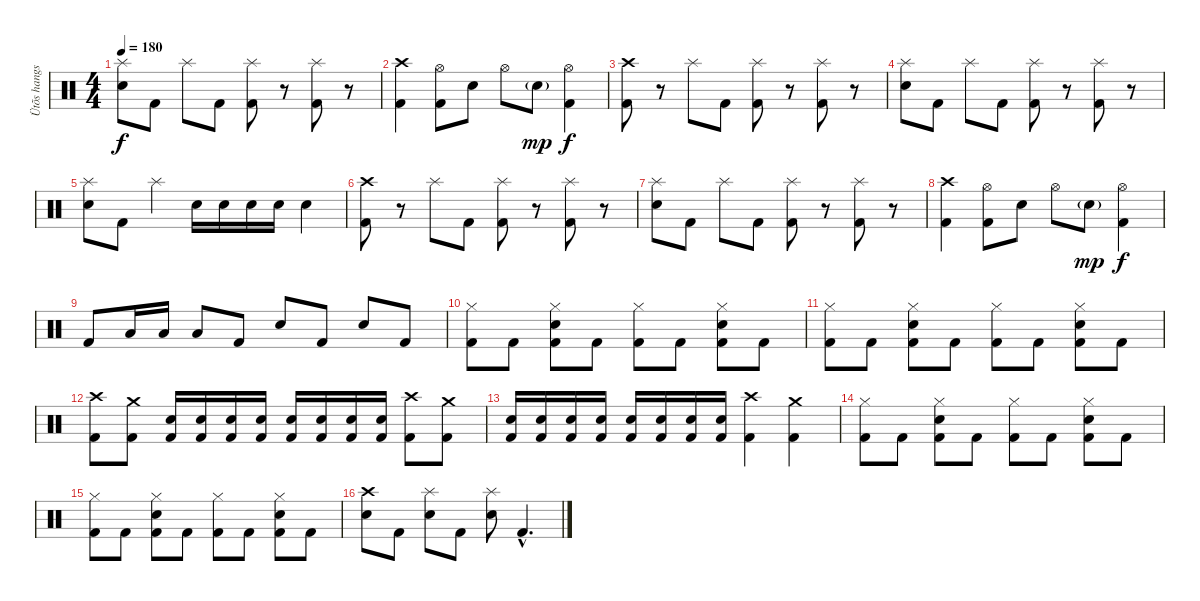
\track ("Ütõs hangszer" "Ütõs hangs") {instrument percussion}
\staff {score}
\articulation defaults
\ts (4 4)
\tempo 180
\clef neutral
\ks c
("Splash (hit)" "Electric Snare (hit)").8{dy f} "Kick (hit) 2".8 "Splash (hit)".8 "Kick (hit) 2".8 ("Splash (hit)" "Kick (hit) 2").8 r.8 ("Splash (hit)" "Kick (hit) 2").8 r.8 |
("Crash high (hit)" "Kick (hit) 2").4 ("Hi-Hat (open)" "Kick (hit) 2").8 "Electric Snare (hit)".8 "Hi-Hat (open)".8 "Electric Snare (hit)"{g}.8{dy mp} ("Hi-Hat (open)" "Kick (hit) 2").4{dy f} |
("Crash high (hit)" "Kick (hit) 2").8 r.8 "Splash (hit)".8 "Kick (hit) 2".8 ("Splash (hit)" "Kick (hit) 2").8 r.8 ("Splash (hit)" "Kick (hit) 2").8 r.8 |
("Splash (hit)" "Electric Snare (hit)").8 "Kick (hit) 2".8 "Splash (hit)".8 "Kick (hit) 2".8 ("Splash (hit)" "Kick (hit) 2").8 r.8 ("Splash (hit)" "Kick (hit) 2").8 r.8 |
("Splash (hit)" "Electric Snare (hit)").8 "Kick (hit) 2".8 "Splash (hit)".4 "Electric Snare (hit)".16 "Electric Snare (hit)".16 "Electric Snare (hit)".16 "Electric Snare (hit)".16 "Electric Snare (hit)".4 |
("Crash high (hit)" "Kick (hit) 2").8 r.8 "Splash (hit)".8 "Kick (hit) 2".8 ("Splash (hit)" "Kick (hit) 2").8 r.8 ("Splash (hit)" "Kick (hit) 2").8 r.8 |
("Splash (hit)" "Electric Snare (hit)").8 "Kick (hit) 2".8 "Splash (hit)".8 "Kick (hit) 2".8 ("Splash (hit)" "Kick (hit) 2").8 r.8 ("Splash (hit)" "Kick (hit) 2").8 r.8 |
("Crash high (hit)" "Kick (hit) 2").4 ("Hi-Hat (open)" "Kick (hit) 2").8 "Electric Snare (hit)".8 "Hi-Hat (open)".8 "Electric Snare (hit)"{g}.8{dy mp} ("Hi-Hat (open)" "Kick (hit) 2").4{dy f} |
"Kick (hit) 2".8 "Low Tom (hit)".16 "Low Tom (hit)".16 "Low Tom (hit)".8 "Kick (hit) 2".8 "Electric Snare (hit)".8 "Kick (hit) 2".8 "Electric Snare (hit)".8 "Kick (hit) 2".8 |
("Hi-Hat (closed)" "Kick (hit) 2").8 "Kick (hit) 2".8 ("Hi-Hat (closed)" "Electric Snare (hit)" "Kick (hit) 2").8 "Kick (hit) 2".8 ("Hi-Hat (closed)" "Kick (hit) 2").8 "Kick (hit) 2".8 ("Hi-Hat (closed)" "Electric Snare (hit)" "Kick (hit) 2").8 "Kick (hit) 2".8 |
("Hi-Hat (closed)" "Kick (hit) 2").8 "Kick (hit) 2".8 ("Hi-Hat (closed)" "Electric Snare (hit)" "Kick (hit) 2").8 "Kick (hit) 2".8 ("Hi-Hat (closed)" "Kick (hit) 2").8 "Kick (hit) 2".8 ("Hi-Hat (closed)" "Electric Snare (hit)" "Kick (hit) 2").8 "Kick (hit) 2".8 |
("Crash high (hit)" "Kick (hit) 2").8 ("Crash medium (hit)" "Kick (hit) 2").8 ("Electric Snare (hit)" "Kick (hit) 2").16 ("Electric Snare (hit)" "Kick (hit) 2").16 ("Electric Snare (hit)" "Kick (hit) 2").16 ("Electric Snare (hit)" "Kick (hit) 2").16 ("Electric Snare (hit)" "Kick (hit) 2").16 ("Electric Snare (hit)" "Kick (hit) 2").16 ("Electric Snare (hit)" "Kick (hit) 2").16 ("Electric Snare (hit)" "Kick (hit) 2").16 ("Crash high (hit)" "Kick (hit) 2").8 ("Crash medium (hit)" "Kick (hit) 2").8 |
("Electric Snare (hit)" "Kick (hit) 2").16 ("Electric Snare (hit)" "Kick (hit) 2").16 ("Electric Snare (hit)" "Kick (hit) 2").16 ("Electric Snare (hit)" "Kick (hit) 2").16 ("Electric Snare (hit)" "Kick (hit) 2").16 ("Electric Snare (hit)" "Kick (hit) 2").16 ("Electric Snare (hit)" "Kick (hit) 2").16 ("Electric Snare (hit)" "Kick (hit) 2").16 ("Crash high (hit)" "Kick (hit) 2").4 ("Crash medium (hit)" "Kick (hit) 2").4 |
("Hi-Hat (closed)" "Kick (hit) 2").8 "Kick (hit) 2".8 ("Hi-Hat (closed)" "Electric Snare (hit)" "Kick (hit) 2").8 "Kick (hit) 2".8 ("Hi-Hat (closed)" "Kick (hit) 2").8 "Kick (hit) 2".8 ("Hi-Hat (closed)" "Electric Snare (hit)" "Kick (hit) 2").8 "Kick (hit) 2".8 |
("Hi-Hat (closed)" "Kick (hit) 2").8 "Kick (hit) 2".8 ("Hi-Hat (closed)" "Electric Snare (hit)" "Kick (hit) 2").8 "Kick (hit) 2".8 ("Hi-Hat (closed)" "Kick (hit) 2").8 "Kick (hit) 2".8 ("Hi-Hat (closed)" "Electric Snare (hit)" "Kick (hit) 2").8 "Kick (hit) 2".8 |
("Crash high (hit)" "Electric Snare (hit)").8 "Kick (hit) 2".8 ("Splash (hit)" "Electric Snare (hit)").8 "Kick (hit) 2".8 ("Splash (hit)" "Electric Snare (hit)").8 "Kick (hit) 2"{hac}.4{d}
